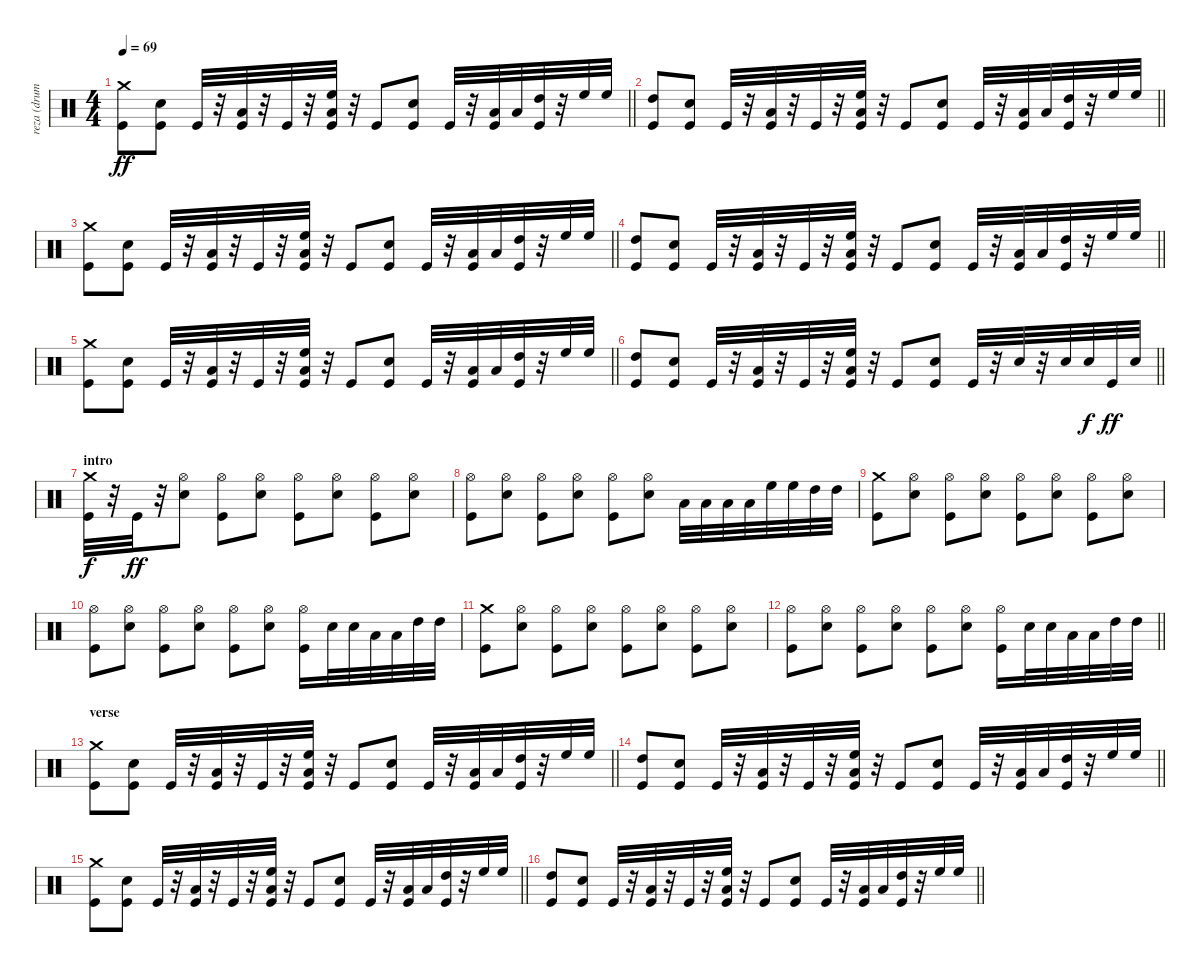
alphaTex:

\track ("reza (drum)" "reza (drum") {instrument percussion}
\staff {score}
\articulation defaults
\ts (4 4)
\tempo 69
\clef neutral
\barLineRight lightlight
\ks c
("Crash medium (hit)" "Kick (hit)").8{dy ff} ("Electric Snare (hit)" "Kick (hit)").8 "Kick (hit)".32 r.32 ("Low Tom (hit)" "Kick (hit)").32 r.32 "Kick (hit)".32 r.32 ("High Floor Tom (hit)" "Low Tom (hit)" "Kick (hit)").32 r.32 "Kick (hit)".8 ("Electric Snare (hit)" "Kick (hit)").8 "Kick (hit)".32 r.32 ("Low Tom (hit)" "Kick (hit)").32 "Low Tom (hit)".32 ("High Tom (hit)" "Kick (hit)").32 r.32 "High Floor Tom (hit)".32 "High Floor Tom (hit)".32 |
\barLineRight lightlight
("High Tom (hit)" "Kick (hit)").8 ("Electric Snare (hit)" "Kick (hit)").8 "Kick (hit)".32 r.32 ("Low Tom (hit)" "Kick (hit)").32 r.32 "Kick (hit)".32 r.32 ("High Floor Tom (hit)" "Low Tom (hit)" "Kick (hit)").32 r.32 "Kick (hit)".8 ("Electric Snare (hit)" "Kick (hit)").8 "Kick (hit)".32 r.32 ("Low Tom (hit)" "Kick (hit)").32 "Low Tom (hit)".32 ("High Tom (hit)" "Kick (hit)").32 r.32 "High Floor Tom (hit)".32 "High Floor Tom (hit)".32 |
\barLineRight lightlight
("Crash medium (hit)" "Kick (hit)").8 ("Electric Snare (hit)" "Kick (hit)").8 "Kick (hit)".32 r.32 ("Low Tom (hit)" "Kick (hit)").32 r.32 "Kick (hit)".32 r.32 ("High Floor Tom (hit)" "Low Tom (hit)" "Kick (hit)").32 r.32 "Kick (hit)".8 ("Electric Snare (hit)" "Kick (hit)").8 "Kick (hit)".32 r.32 ("Low Tom (hit)" "Kick (hit)").32 "Low Tom (hit)".32 ("High Tom (hit)" "Kick (hit)").32 r.32 "High Floor Tom (hit)".32 "High Floor Tom (hit)".32 |
\barLineRight lightlight
("High Tom (hit)" "Kick (hit)").8 ("Electric Snare (hit)" "Kick (hit)").8 "Kick (hit)".32 r.32 ("Low Tom (hit)" "Kick (hit)").32 r.32 "Kick (hit)".32 r.32 ("High Floor Tom (hit)" "Low Tom (hit)" "Kick (hit)").32 r.32 "Kick (hit)".8 ("Electric Snare (hit)" "Kick (hit)").8 "Kick (hit)".32 r.32 ("Low Tom (hit)" "Kick (hit)").32 "Low Tom (hit)".32 ("High Tom (hit)" "Kick (hit)").32 r.32 "High Floor Tom (hit)".32 "High Floor Tom (hit)".32 |
\barLineRight lightlight
("Crash medium (hit)" "Kick (hit)").8 ("Electric Snare (hit)" "Kick (hit)").8 "Kick (hit)".32 r.32 ("Low Tom (hit)" "Kick (hit)").32 r.32 "Kick (hit)".32 r.32 ("High Floor Tom (hit)" "Low Tom (hit)" "Kick (hit)").32 r.32 "Kick (hit)".8 ("Electric Snare (hit)" "Kick (hit)").8 "Kick (hit)".32 r.32 ("Low Tom (hit)" "Kick (hit)").32 "Low Tom (hit)".32 ("High Tom (hit)" "Kick (hit)").32 r.32 "High Floor Tom (hit)".32 "High Floor Tom (hit)".32 |
\barLineRight lightlight
("High Tom (hit)" "Kick (hit)").8 ("Electric Snare (hit)" "Kick (hit)").8 "Kick (hit)".32 r.32 ("Low Tom (hit)" "Kick (hit)").32 r.32 "Kick (hit)".32 r.32 ("High Floor Tom (hit)" "Low Tom (hit)" "Kick (hit)").32 r.32 "Kick (hit)".8 ("Electric Snare (hit)" "Kick (hit)").8 "Kick (hit)".32 r.32 "Electric Snare (hit)".32 r.32 "Electric Snare (hit)".32 "Electric Snare (hit)".32{dy f} "Kick (hit)".32{dy ff} "Electric Snare (hit)".32 |
\section ("" "intro")
("Crash medium (hit)" "Kick (hit)").32{dy f} r.32 "Kick (hit)".32{dy ff} r.32 ("Hi-Hat (open)" "Electric Snare (hit)").8 ("Hi-Hat (open)" "Kick (hit)").8 ("Hi-Hat (open)" "Electric Snare (hit)").8 ("Hi-Hat (open)" "Kick (hit)").8 ("Hi-Hat (open)" "Electric Snare (hit)").8 ("Hi-Hat (open)" "Kick (hit)").8 ("Hi-Hat (open)" "Electric Snare (hit)").8 |
("Hi-Hat (open)" "Kick (hit)").8 ("Hi-Hat (open)" "Electric Snare (hit)").8 ("Hi-Hat (open)" "Kick (hit)").8 ("Hi-Hat (open)" "Electric Snare (hit)").8 ("Hi-Hat (open)" "Kick (hit)").8 ("Hi-Hat (open)" "Electric Snare (hit)").8 "Low Tom (hit)".32 "Low Tom (hit)".32 "Low Tom (hit)".32 "Low Tom (hit)".32 "High Floor Tom (hit)".32 "High Floor Tom (hit)".32 "High Tom (hit)".32 "High Tom (hit)".32 |
("Crash medium (hit)" "Kick (hit)").8 ("Hi-Hat (open)" "Electric Snare (hit)").8 ("Hi-Hat (open)" "Kick (hit)").8 ("Hi-Hat (open)" "Electric Snare (hit)").8 ("Hi-Hat (open)" "Kick (hit)").8 ("Hi-Hat (open)" "Electric Snare (hit)").8 ("Hi-Hat (open)" "Kick (hit)").8 ("Hi-Hat (open)" "Electric Snare (hit)").8 |
("Hi-Hat (open)" "Kick (hit)").8 ("Hi-Hat (open)" "Electric Snare (hit)").8 ("Hi-Hat (open)" "Kick (hit)").8 ("Hi-Hat (open)" "Electric Snare (hit)").8 ("Hi-Hat (open)" "Kick (hit)").8 ("Hi-Hat (open)" "Electric Snare (hit)").8 ("Hi-Hat (open)" "Kick (hit)").16 "Electric Snare (hit)".32 "Electric Snare (hit)".32 "Low Tom (hit)".32 "Low Tom (hit)".32 "High Tom (hit)".32 "High Tom (hit)".32 |
("Crash medium (hit)" "Kick (hit)").8 ("Hi-Hat (open)" "Electric Snare (hit)").8 ("Hi-Hat (open)" "Kick (hit)").8 ("Hi-Hat (open)" "Electric Snare (hit)").8 ("Hi-Hat (open)" "Kick (hit)").8 ("Hi-Hat (open)" "Electric Snare (hit)").8 ("Hi-Hat (open)" "Kick (hit)").8 ("Hi-Hat (open)" "Electric Snare (hit)").8 |
\barLineRight lightlight
("Hi-Hat (open)" "Kick (hit)").8 ("Hi-Hat (open)" "Electric Snare (hit)").8 ("Hi-Hat (open)" "Kick (hit)").8 ("Hi-Hat (open)" "Electric Snare (hit)").8 ("Hi-Hat (open)" "Kick (hit)").8 ("Hi-Hat (open)" "Electric Snare (hit)").8 ("Hi-Hat (open)" "Kick (hit)").16 "Electric Snare (hit)".32 "Electric Snare (hit)".32 "Low Tom (hit)".32 "Low Tom (hit)".32 "High Tom (hit)".32 "High Tom (hit)".32 |
\section ("" "verse")
\barLineRight lightlight
("Crash medium (hit)" "Kick (hit)").8 ("Electric Snare (hit)" "Kick (hit)").8 "Kick (hit)".32 r.32 ("Low Tom (hit)" "Kick (hit)").32 r.32 "Kick (hit)".32 r.32 ("High Floor Tom (hit)" "Low Tom (hit)" "Kick (hit)").32 r.32 "Kick (hit)".8 ("Electric Snare (hit)" "Kick (hit)").8 "Kick (hit)".32 r.32 ("Low Tom (hit)" "Kick (hit)").32 "Low Tom (hit)".32 ("High Tom (hit)" "Kick (hit)").32 r.32 "High Floor Tom (hit)".32 "High Floor Tom (hit)".32 |
\barLineRight lightlight
("High Tom (hit)" "Kick (hit)").8 ("Electric Snare (hit)" "Kick (hit)").8 "Kick (hit)".32 r.32 ("Low Tom (hit)" "Kick (hit)").32 r.32 "Kick (hit)".32 r.32 ("High Floor Tom (hit)" "Low Tom (hit)" "Kick (hit)").32 r.32 "Kick (hit)".8 ("Electric Snare (hit)" "Kick (hit)").8 "Kick (hit)".32 r.32 ("Low Tom (hit)" "Kick (hit)").32 "Low Tom (hit)".32 ("High Tom (hit)" "Kick (hit)").32 r.32 "High Floor Tom (hit)".32 "High Floor Tom (hit)".32 |
\barLineRight lightlight
("Crash medium (hit)" "Kick (hit)").8 ("Electric Snare (hit)" "Kick (hit)").8 "Kick (hit)".32 r.32 ("Low Tom (hit)" "Kick (hit)").32 r.32 "Kick (hit)".32 r.32 ("High Floor Tom (hit)" "Low Tom (hit)" "Kick (hit)").32 r.32 "Kick (hit)".8 ("Electric Snare (hit)" "Kick (hit)").8 "Kick (hit)".32 r.32 ("Low Tom (hit)" "Kick (hit)").32 "Low Tom (hit)".32 ("High Tom (hit)" "Kick (hit)").32 r.32 "High Floor Tom (hit)".32 "High Floor Tom (hit)".32 |
\barLineRight lightlight
("High Tom (hit)" "Kick (hit)").8 ("Electric Snare (hit)" "Kick (hit)").8 "Kick (hit)".32 r.32 ("Low Tom (hit)" "Kick (hit)").32 r.32 "Kick (hit)".32 r.32 ("High Floor Tom (hit)" "Low Tom (hit)" "Kick (hit)").32 r.32 "Kick (hit)".8 ("Electric Snare (hit)" "Kick (hit)").8 "Kick (hit)".32 r.32 ("Low Tom (hit)" "Kick (hit)").32 "Low Tom (hit)".32 ("High Tom (hit)" "Kick (hit)").32 r.32 "High Floor Tom (hit)".32 "High Floor Tom (hit)".32
